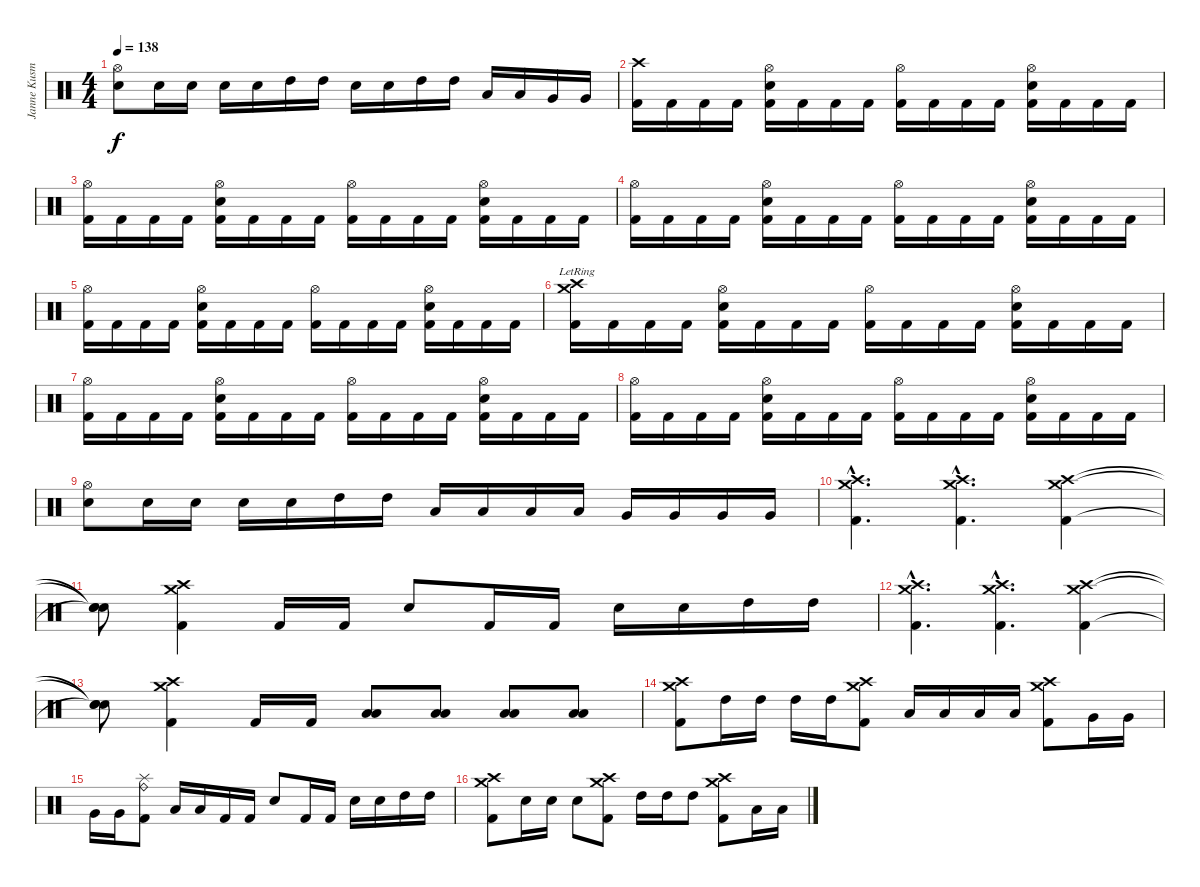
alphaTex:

\track ("Janne Kusmin" "Janne Kusm") {instrument percussion}
\staff {score}
\articulation defaults
\ts (4 4)
\tempo 138
\clef neutral
\ks c
("Hi-Hat (open)" "Electric Snare (hit)").8{dy f} "Electric Snare (hit)".16 "Electric Snare (hit)".16 "Electric Snare (hit)".16 "Electric Snare (hit)".16 "High Tom (hit)".16 "High Tom (hit)".16 "Electric Snare (hit)".16 "Electric Snare (hit)".16 "High Tom (hit)".16 "High Tom (hit)".16 "Low Tom (hit)".16 "Low Tom (hit)".16 "Very Low Tom (hit)".16 "Very Low Tom (hit)".16 |
("Crash high (hit)" "Kick (hit) 2").16 "Kick (hit) 2".16 "Kick (hit) 2".16 "Kick (hit) 2".16 ("Hi-Hat (open)" "Electric Snare (hit)" "Kick (hit) 2").16 "Kick (hit) 2".16 "Kick (hit) 2".16 "Kick (hit) 2".16 ("Hi-Hat (open)" "Kick (hit) 2").16 "Kick (hit) 2".16 "Kick (hit) 2".16 "Kick (hit) 2".16 ("Hi-Hat (open)" "Electric Snare (hit)" "Kick (hit) 2").16 "Kick (hit) 2".16 "Kick (hit) 2".16 "Kick (hit) 2".16 |
("Hi-Hat (open)" "Kick (hit) 2").16 "Kick (hit) 2".16 "Kick (hit) 2".16 "Kick (hit) 2".16 ("Hi-Hat (open)" "Electric Snare (hit)" "Kick (hit) 2").16 "Kick (hit) 2".16 "Kick (hit) 2".16 "Kick (hit) 2".16 ("Hi-Hat (open)" "Kick (hit) 2").16 "Kick (hit) 2".16 "Kick (hit) 2".16 "Kick (hit) 2".16 ("Hi-Hat (open)" "Electric Snare (hit)" "Kick (hit) 2").16 "Kick (hit) 2".16 "Kick (hit) 2".16 "Kick (hit) 2".16 |
("Hi-Hat (open)" "Kick (hit) 2").16 "Kick (hit) 2".16 "Kick (hit) 2".16 "Kick (hit) 2".16 ("Hi-Hat (open)" "Electric Snare (hit)" "Kick (hit) 2").16 "Kick (hit) 2".16 "Kick (hit) 2".16 "Kick (hit) 2".16 ("Hi-Hat (open)" "Kick (hit) 2").16 "Kick (hit) 2".16 "Kick (hit) 2".16 "Kick (hit) 2".16 ("Hi-Hat (open)" "Electric Snare (hit)" "Kick (hit) 2").16 "Kick (hit) 2".16 "Kick (hit) 2".16 "Kick (hit) 2".16 |
("Hi-Hat (open)" "Kick (hit) 2").16 "Kick (hit) 2".16 "Kick (hit) 2".16 "Kick (hit) 2".16 ("Hi-Hat (open)" "Electric Snare (hit)" "Kick (hit) 2").16 "Kick (hit) 2".16 "Kick (hit) 2".16 "Kick (hit) 2".16 ("Hi-Hat (open)" "Kick (hit) 2").16 "Kick (hit) 2".16 "Kick (hit) 2".16 "Kick (hit) 2".16 ("Hi-Hat (open)" "Electric Snare (hit)" "Kick (hit) 2").16 "Kick (hit) 2".16 "Kick (hit) 2".16 "Kick (hit) 2".16 |
("Crash high (hit)"{lr} "Crash medium (hit)"{lr} "Kick (hit) 2").16 "Kick (hit) 2".16 "Kick (hit) 2".16 "Kick (hit) 2".16 ("Hi-Hat (open)" "Electric Snare (hit)" "Kick (hit) 2").16 "Kick (hit) 2".16 "Kick (hit) 2".16 "Kick (hit) 2".16 ("Hi-Hat (open)" "Kick (hit) 2").16 "Kick (hit) 2".16 "Kick (hit) 2".16 "Kick (hit) 2".16 ("Hi-Hat (open)" "Electric Snare (hit)" "Kick (hit) 2").16 "Kick (hit) 2".16 "Kick (hit) 2".16 "Kick (hit) 2".16 |
("Hi-Hat (open)" "Kick (hit) 2").16 "Kick (hit) 2".16 "Kick (hit) 2".16 "Kick (hit) 2".16 ("Hi-Hat (open)" "Electric Snare (hit)" "Kick (hit) 2").16 "Kick (hit) 2".16 "Kick (hit) 2".16 "Kick (hit) 2".16 ("Hi-Hat (open)" "Kick (hit) 2").16 "Kick (hit) 2".16 "Kick (hit) 2".16 "Kick (hit) 2".16 ("Hi-Hat (open)" "Electric Snare (hit)" "Kick (hit) 2").16 "Kick (hit) 2".16 "Kick (hit) 2".16 "Kick (hit) 2".16 |
("Hi-Hat (open)" "Kick (hit) 2").16 "Kick (hit) 2".16 "Kick (hit) 2".16 "Kick (hit) 2".16 ("Hi-Hat (open)" "Electric Snare (hit)" "Kick (hit) 2").16 "Kick (hit) 2".16 "Kick (hit) 2".16 "Kick (hit) 2".16 ("Hi-Hat (open)" "Kick (hit) 2").16 "Kick (hit) 2".16 "Kick (hit) 2".16 "Kick (hit) 2".16 ("Hi-Hat (open)" "Electric Snare (hit)" "Kick (hit) 2").16 "Kick (hit) 2".16 "Kick (hit) 2".16 "Kick (hit) 2".16 |
("Hi-Hat (open)" "Electric Snare (hit)").8 "Electric Snare (hit)".16 "Electric Snare (hit)".16 "Electric Snare (hit)".16 "Electric Snare (hit)".16 "High Tom (hit)".16 "High Tom (hit)".16 "Low Tom (hit)".16 "Low Tom (hit)".16 "Low Tom (hit)".16 "Low Tom (hit)".16 "Very Low Tom (hit)".16 "Very Low Tom (hit)".16 "Very Low Tom (hit)".16 "Very Low Tom (hit)".16 |
("Crash high (hit)"{hac} "Crash medium (hit)"{hac} "Kick (hit) 2"{hac}).4{d} ("Crash high (hit)"{hac} "Crash medium (hit)"{hac} "Kick (hit) 2"{hac}).4{d} ("Crash high (hit)" "Crash medium (hit)" "Kick (hit) 2").4 |
("Snare (hit)"{t} "Snare (hit)"{t} "Snare (hit)"{t}).8 ("Crash high (hit)" "Crash medium (hit)" "Kick (hit) 2").4 "Kick (hit) 2".16 "Kick (hit) 2".16 "Electric Snare (hit)".8 "Kick (hit) 2".16 "Kick (hit) 2".16 "Electric Snare (hit)".16 "Electric Snare (hit)".16 "High Tom (hit)".16 "High Tom (hit)".16 |
("Crash high (hit)"{hac} "Crash medium (hit)"{hac} "Kick (hit) 2"{hac}).4{d} ("Crash high (hit)"{hac} "Crash medium (hit)"{hac} "Kick (hit) 2"{hac}).4{d} ("Crash high (hit)" "Crash medium (hit)" "Kick (hit) 2").4 |
("Snare (hit)"{t} "Snare (hit)"{t} "Snare (hit)"{t}).8 ("Crash high (hit)" "Crash medium (hit)" "Kick (hit) 2").4 "Kick (hit) 2".16 "Kick (hit) 2".16 ("Low Tom (hit)" "Low Floor Tom (hit)").8 ("Low Tom (hit)" "Low Floor Tom (hit)").8 ("Low Tom (hit)" "Low Floor Tom (hit)").8 ("Low Tom (hit)" "Low Floor Tom (hit)").8 |
("Crash high (hit)" "Crash medium (hit)" "Kick (hit) 2").8 "High Tom (hit)".16 "High Tom (hit)".16 "High Tom (hit)".16 "High Tom (hit)".16 ("Crash high (hit)" "Crash medium (hit)" "Kick (hit) 2").8 "Low Tom (hit)".16 "Low Tom (hit)".16 "Low Tom (hit)".16 "Low Tom (hit)".16 ("Crash high (hit)" "Crash medium (hit)" "Kick (hit) 2").8 "Very Low Tom (hit)".16 "Very Low Tom (hit)".16 |
"Very Low Tom (hit)".16 "Very Low Tom (hit)".16 ("Ride (bell)" "Splash (hit)" "Kick (hit) 2").8 "Low Floor Tom (hit)".16 "Low Floor Tom (hit)".16 "Kick (hit) 2".16 "Kick (hit) 2".16 "Electric Snare (hit)".8 "Kick (hit) 2".16 "Kick (hit) 2".16 "Electric Snare (hit)".16 "Electric Snare (hit)".16 "High Tom (hit)".16 "High Tom (hit)".16 |
("Crash high (hit)" "Crash medium (hit)" "Kick (hit) 2").8 "Electric Snare (hit)".16 "Electric Snare (hit)".16 "Electric Snare (hit)".8 ("Crash high (hit)" "Crash medium (hit)" "Kick (hit) 2").8 "High Tom (hit)".16 "High Tom (hit)".16 "High Tom (hit)".8 ("Crash high (hit)" "Crash medium (hit)" "Kick (hit) 2").8 "Low Tom (hit)".16 "Low Tom (hit)".16
